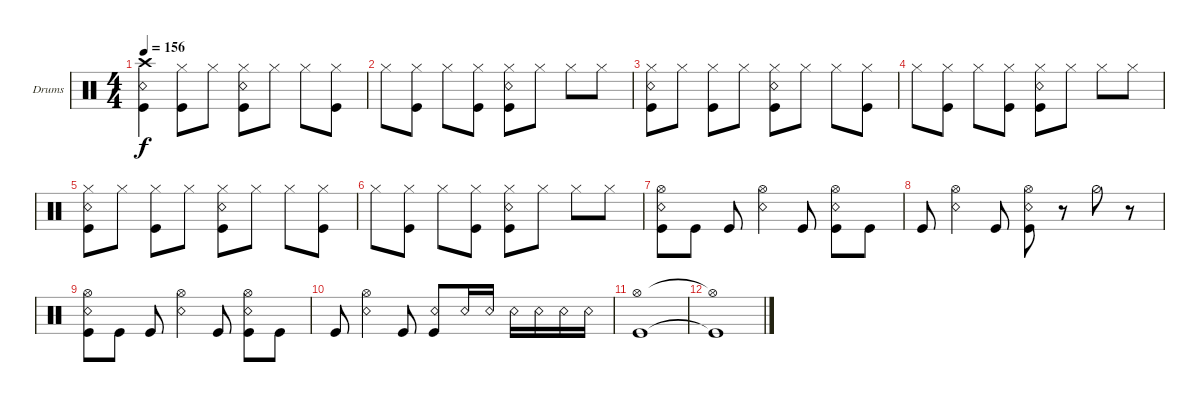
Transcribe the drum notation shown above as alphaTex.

\bracketExtendMode groupsimilarinstruments
\firstSystemTrackNameOrientation horizontal
\otherSystemsTrackNameOrientation horizontal
\track ("Drums" "Drums") {instrument percussion}
\staff {score}
\articulation defaults
\ts (4 4)
\tempo 156
\clef neutral
\ks c
("Kick (hit)" "Snare (rim shot)" "Crash high (hit)").4{dy f} ("Kick (hit)" "Hi-Hat (closed)").8 "Hi-Hat (closed)".8 ("Kick (hit)" "Snare (rim shot)" "Hi-Hat (closed)").8 "Hi-Hat (closed)".8 "Hi-Hat (closed)".8 ("Kick (hit)" "Hi-Hat (closed)").8 |
"Hi-Hat (closed)".8 ("Kick (hit)" "Hi-Hat (closed)").8 "Hi-Hat (closed)".8 ("Kick (hit)" "Hi-Hat (closed)").8 ("Kick (hit)" "Snare (rim shot)" "Hi-Hat (closed)").8 "Hi-Hat (closed)".8 "Hi-Hat (closed)".8 "Hi-Hat (closed)".8 |
("Kick (hit)" "Snare (rim shot)" "Hi-Hat (closed)").8 "Hi-Hat (closed)".8 ("Kick (hit)" "Hi-Hat (closed)").8 "Hi-Hat (closed)".8 ("Kick (hit)" "Snare (rim shot)" "Hi-Hat (closed)").8 "Hi-Hat (closed)".8 "Hi-Hat (closed)".8 ("Kick (hit)" "Hi-Hat (closed)").8 |
"Hi-Hat (closed)".8 ("Kick (hit)" "Hi-Hat (closed)").8 "Hi-Hat (closed)".8 ("Kick (hit)" "Hi-Hat (closed)").8 ("Kick (hit)" "Snare (rim shot)" "Hi-Hat (closed)").8 "Hi-Hat (closed)".8 "Hi-Hat (closed)".8 "Hi-Hat (closed)".8 |
("Kick (hit)" "Snare (rim shot)" "Hi-Hat (closed)").8 "Hi-Hat (closed)".8 ("Kick (hit)" "Hi-Hat (closed)").8 "Hi-Hat (closed)".8 ("Kick (hit)" "Snare (rim shot)" "Hi-Hat (closed)").8 "Hi-Hat (closed)".8 "Hi-Hat (closed)".8 ("Kick (hit)" "Hi-Hat (closed)").8 |
"Hi-Hat (closed)".8 ("Kick (hit)" "Hi-Hat (closed)").8 "Hi-Hat (closed)".8 ("Kick (hit)" "Hi-Hat (closed)").8 ("Kick (hit)" "Snare (rim shot)" "Hi-Hat (closed)").8 "Hi-Hat (closed)".8 "Hi-Hat (closed)".8 "Hi-Hat (closed)".8 |
("Kick (hit)" "Snare (rim shot)" "Hi-Hat (open)").8 "Kick (hit)".8 "Kick (hit)".8 ("Snare (rim shot)" "Hi-Hat (open)").4 "Kick (hit)".8 ("Kick (hit)" "Snare (rim shot)" "Hi-Hat (open)").8 "Kick (hit)".8 |
"Kick (hit)".8 ("Snare (rim shot)" "Hi-Hat (open)").4 "Kick (hit)".8 ("Kick (hit)" "Snare (rim shot)" "Hi-Hat (open)").8 r.8 "Hi-Hat (half)".8 r.8 |
("Kick (hit)" "Snare (rim shot)" "Hi-Hat (open)").8 "Kick (hit)".8 "Kick (hit)".8 ("Snare (rim shot)" "Hi-Hat (open)").4 "Kick (hit)".8 ("Kick (hit)" "Snare (rim shot)" "Hi-Hat (open)").8 "Kick (hit)".8 |
"Kick (hit)".8 ("Snare (rim shot)" "Hi-Hat (open)").4 "Kick (hit)".8 ("Kick (hit)" "Snare (rim shot)").8 "Snare (rim shot)".16 "Snare (rim shot)".16 "Snare (rim shot)".16 "Snare (rim shot)".16 "Snare (rim shot)".16 "Snare (rim shot)".16 |
("Kick (hit)" "Hi-Hat (open)").1 |
("Kick (hit)"{t} "Hi-Hat (open)"{t}).1
